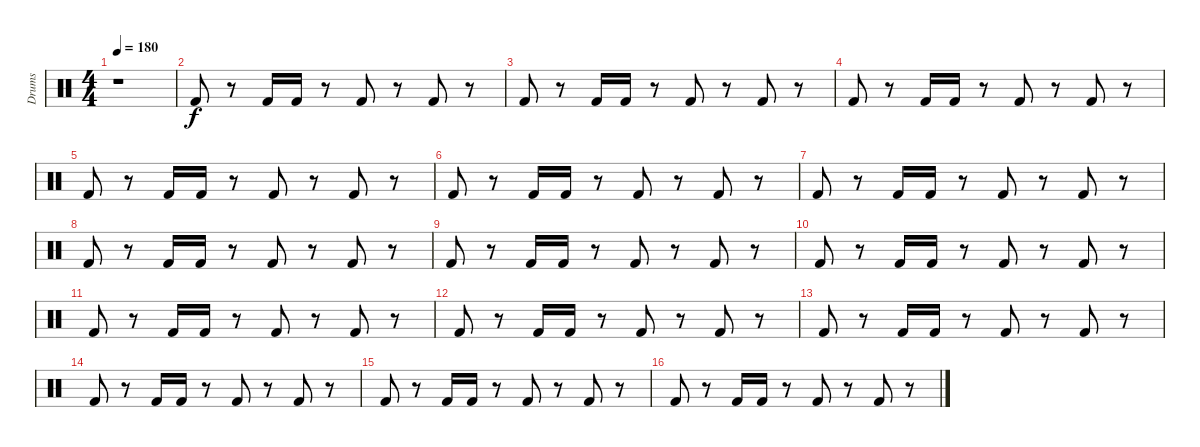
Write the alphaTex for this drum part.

\track ("Drums" "Drums") {instrument percussion}
\staff {score}
\articulation defaults
\ts (4 4)
\tempo 180
\clef neutral
\ks c
r.1{dy f} |
"Kick (hit) 2".8 r.8 "Kick (hit) 2".16 "Kick (hit) 2".16 r.8 "Kick (hit) 2".8 r.8 "Kick (hit) 2".8 r.8 |
"Kick (hit) 2".8 r.8 "Kick (hit) 2".16 "Kick (hit) 2".16 r.8 "Kick (hit) 2".8 r.8 "Kick (hit) 2".8 r.8 |
"Kick (hit) 2".8 r.8 "Kick (hit) 2".16 "Kick (hit) 2".16 r.8 "Kick (hit) 2".8 r.8 "Kick (hit) 2".8 r.8 |
"Kick (hit) 2".8 r.8 "Kick (hit) 2".16 "Kick (hit) 2".16 r.8 "Kick (hit) 2".8 r.8 "Kick (hit) 2".8 r.8 |
"Kick (hit) 2".8 r.8 "Kick (hit) 2".16 "Kick (hit) 2".16 r.8 "Kick (hit) 2".8 r.8 "Kick (hit) 2".8 r.8 |
"Kick (hit) 2".8 r.8 "Kick (hit) 2".16 "Kick (hit) 2".16 r.8 "Kick (hit) 2".8 r.8 "Kick (hit) 2".8 r.8 |
"Kick (hit) 2".8 r.8 "Kick (hit) 2".16 "Kick (hit) 2".16 r.8 "Kick (hit) 2".8 r.8 "Kick (hit) 2".8 r.8 |
"Kick (hit) 2".8 r.8 "Kick (hit) 2".16 "Kick (hit) 2".16 r.8 "Kick (hit) 2".8 r.8 "Kick (hit) 2".8 r.8 |
"Kick (hit) 2".8 r.8 "Kick (hit) 2".16 "Kick (hit) 2".16 r.8 "Kick (hit) 2".8 r.8 "Kick (hit) 2".8 r.8 |
"Kick (hit) 2".8 r.8 "Kick (hit) 2".16 "Kick (hit) 2".16 r.8 "Kick (hit) 2".8 r.8 "Kick (hit) 2".8 r.8 |
"Kick (hit) 2".8 r.8 "Kick (hit) 2".16 "Kick (hit) 2".16 r.8 "Kick (hit) 2".8 r.8 "Kick (hit) 2".8 r.8 |
"Kick (hit) 2".8 r.8 "Kick (hit) 2".16 "Kick (hit) 2".16 r.8 "Kick (hit) 2".8 r.8 "Kick (hit) 2".8 r.8 |
"Kick (hit) 2".8 r.8 "Kick (hit) 2".16 "Kick (hit) 2".16 r.8 "Kick (hit) 2".8 r.8 "Kick (hit) 2".8 r.8 |
"Kick (hit) 2".8 r.8 "Kick (hit) 2".16 "Kick (hit) 2".16 r.8 "Kick (hit) 2".8 r.8 "Kick (hit) 2".8 r.8 |
"Kick (hit) 2".8 r.8 "Kick (hit) 2".16 "Kick (hit) 2".16 r.8 "Kick (hit) 2".8 r.8 "Kick (hit) 2".8 r.8
